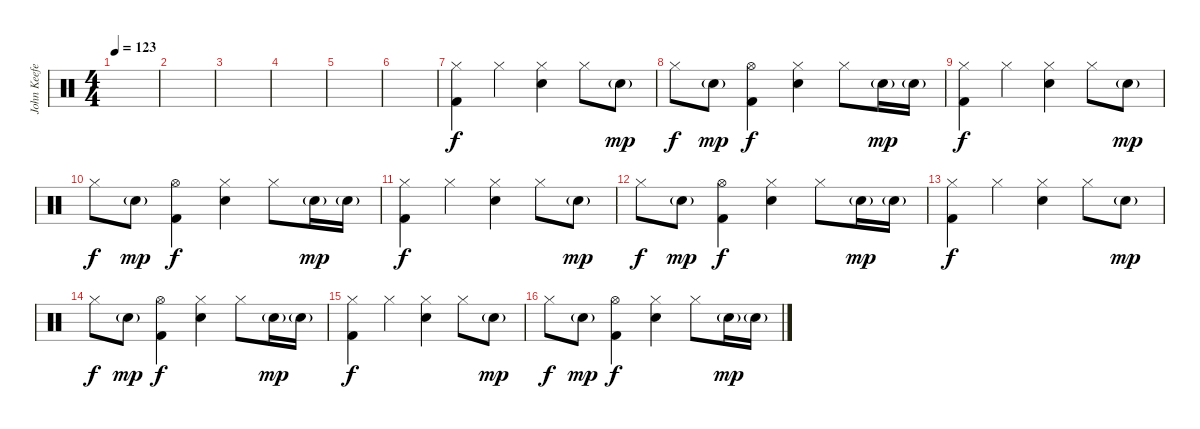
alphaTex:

\track ("John Keefe - Drums" "John Keefe") {instrument percussion}
\staff {score}
\articulation defaults
\ts (4 4)
\tempo 123
\clef neutral
\ks c
|
|
|
|
|
|
("Hi-Hat (closed)" "Kick (hit) 2").4 "Hi-Hat (closed)".4 ("Hi-Hat (closed)" "Snare (hit) 2").4 "Hi-Hat (closed)".8 "Snare (hit) 2"{g}.8{dy mp} |
"Hi-Hat (closed)".8{dy f} "Snare (hit) 2"{g}.8{dy mp} ("Hi-Hat (open)" "Kick (hit) 2").4{dy f} ("Hi-Hat (closed)" "Snare (hit) 2").4 "Hi-Hat (closed)".8 "Snare (hit) 2"{g}.16{dy mp} "Snare (hit) 2"{g}.16 |
("Hi-Hat (closed)" "Kick (hit) 2").4{dy f} "Hi-Hat (closed)".4 ("Hi-Hat (closed)" "Snare (hit) 2").4 "Hi-Hat (closed)".8 "Snare (hit) 2"{g}.8{dy mp} |
"Hi-Hat (closed)".8{dy f} "Snare (hit) 2"{g}.8{dy mp} ("Hi-Hat (open)" "Kick (hit) 2").4{dy f} ("Hi-Hat (closed)" "Snare (hit) 2").4 "Hi-Hat (closed)".8 "Snare (hit) 2"{g}.16{dy mp} "Snare (hit) 2"{g}.16 |
("Hi-Hat (closed)" "Kick (hit) 2").4{dy f} "Hi-Hat (closed)".4 ("Hi-Hat (closed)" "Snare (hit) 2").4 "Hi-Hat (closed)".8 "Snare (hit) 2"{g}.8{dy mp} |
"Hi-Hat (closed)".8{dy f} "Snare (hit) 2"{g}.8{dy mp} ("Hi-Hat (open)" "Kick (hit) 2").4{dy f} ("Hi-Hat (closed)" "Snare (hit) 2").4 "Hi-Hat (closed)".8 "Snare (hit) 2"{g}.16{dy mp} "Snare (hit) 2"{g}.16 |
("Hi-Hat (closed)" "Kick (hit) 2").4{dy f} "Hi-Hat (closed)".4 ("Hi-Hat (closed)" "Snare (hit) 2").4 "Hi-Hat (closed)".8 "Snare (hit) 2"{g}.8{dy mp} |
"Hi-Hat (closed)".8{dy f} "Snare (hit) 2"{g}.8{dy mp} ("Hi-Hat (open)" "Kick (hit) 2").4{dy f} ("Hi-Hat (closed)" "Snare (hit) 2").4 "Hi-Hat (closed)".8 "Snare (hit) 2"{g}.16{dy mp} "Snare (hit) 2"{g}.16 |
("Hi-Hat (closed)" "Kick (hit) 2").4{dy f} "Hi-Hat (closed)".4 ("Hi-Hat (closed)" "Snare (hit) 2").4 "Hi-Hat (closed)".8 "Snare (hit) 2"{g}.8{dy mp} |
"Hi-Hat (closed)".8{dy f} "Snare (hit) 2"{g}.8{dy mp} ("Hi-Hat (open)" "Kick (hit) 2").4{dy f} ("Hi-Hat (closed)" "Snare (hit) 2").4 "Hi-Hat (closed)".8 "Snare (hit) 2"{g}.16{dy mp} "Snare (hit) 2"{g}.16
